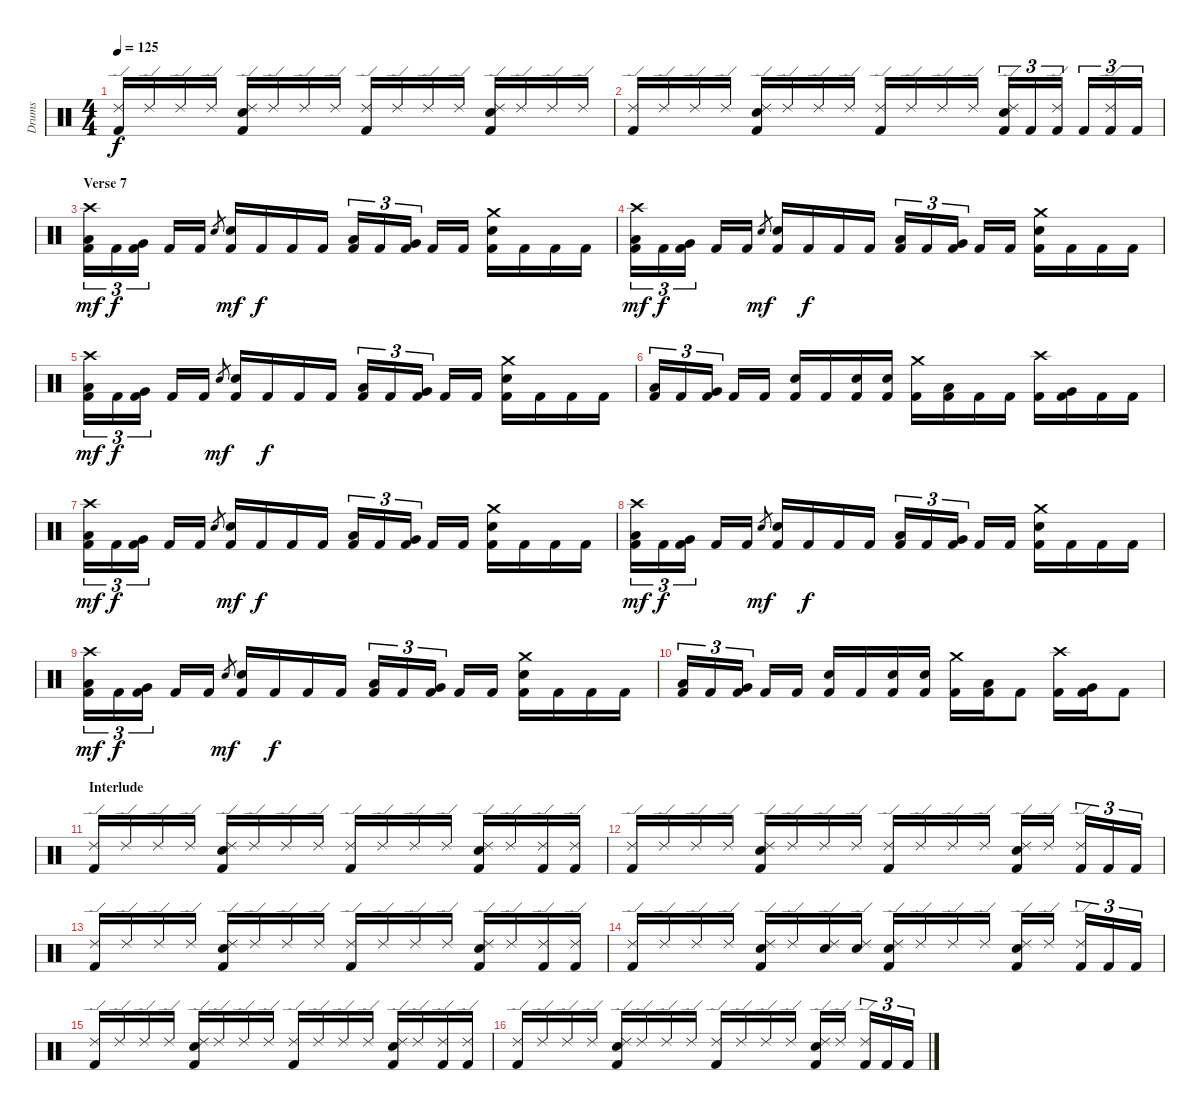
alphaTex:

\track ("Drums" "Drums") {instrument percussion}
\staff {score}
\articulation defaults
\ts (4 4)
\tempo 125
\clef neutral
\ks c
("Kick (hit) 2" "Ride (edge) 2").16{dy f} "Ride (edge) 2".16 "Ride (edge) 2".16 "Ride (edge) 2".16 ("Kick (hit) 2" "Electric Snare (hit)" "Ride (edge) 2").16 "Ride (edge) 2".16 "Ride (edge) 2".16 "Ride (edge) 2".16 ("Kick (hit) 2" "Ride (edge) 2").16 "Ride (edge) 2".16 "Ride (edge) 2".16 "Ride (edge) 2".16 ("Kick (hit) 2" "Electric Snare (hit)" "Ride (edge) 2").16 "Ride (edge) 2".16 "Ride (edge) 2".16 "Ride (edge) 2".16 |
("Kick (hit) 2" "Ride (edge) 2").16 "Ride (edge) 2".16 "Ride (edge) 2".16 "Ride (edge) 2".16 ("Kick (hit) 2" "Electric Snare (hit)" "Ride (edge) 2").16 "Ride (edge) 2".16 "Ride (edge) 2".16 "Ride (edge) 2".16 ("Kick (hit) 2" "Ride (edge) 2").16 "Ride (edge) 2".16 "Ride (edge) 2".16 "Ride (edge) 2".16 ("Kick (hit) 2" "Electric Snare (hit)" "Ride (edge) 2").16{tu (3 2)} "Kick (hit) 2".16{tu (3 2)} ("Kick (hit) 2" "Ride (edge) 2").16{tu (3 2)} "Kick (hit) 2".16{tu (3 2)} ("Kick (hit) 2" "Ride (edge) 2").16{tu (3 2)} "Kick (hit) 2".16{tu (3 2)} |
\section ("" "Verse 7")
("Kick (hit) 2" "Low Floor Tom (hit)" "Crash high (hit)").16{tu (3 2) dy mf} "Kick (hit) 2".16{tu (3 2) dy f} ("Kick (hit) 2" "Very Low Tom (hit)").16{tu (3 2)} "Kick (hit) 2".16 "Kick (hit) 2".16 "Electric Snare (hit)".8{gr} ("Kick (hit) 2" "Electric Snare (hit)").16{dy mf} "Kick (hit) 2".16{dy f} "Kick (hit) 2".16 "Kick (hit) 2".16 ("Kick (hit) 2" "Low Floor Tom (hit)").16{tu (3 2)} "Kick (hit) 2".16{tu (3 2)} ("Kick (hit) 2" "Very Low Tom (hit)").16{tu (3 2)} "Kick (hit) 2".16 "Kick (hit) 2".16 ("Kick (hit) 2" "Electric Snare (hit)" "Crash medium (hit)").16 "Kick (hit) 2".16 "Kick (hit) 2".16 "Kick (hit) 2".16 |
("Kick (hit) 2" "Low Floor Tom (hit)" "Crash high (hit)").16{tu (3 2) dy mf} "Kick (hit) 2".16{tu (3 2) dy f} ("Kick (hit) 2" "Very Low Tom (hit)").16{tu (3 2)} "Kick (hit) 2".16 "Kick (hit) 2".16 "Electric Snare (hit)".8{gr dy mf} ("Kick (hit) 2" "Electric Snare (hit)").16 "Kick (hit) 2".16{dy f} "Kick (hit) 2".16 "Kick (hit) 2".16 ("Kick (hit) 2" "Low Floor Tom (hit)").16{tu (3 2)} "Kick (hit) 2".16{tu (3 2)} ("Kick (hit) 2" "Very Low Tom (hit)").16{tu (3 2)} "Kick (hit) 2".16 "Kick (hit) 2".16 ("Kick (hit) 2" "Electric Snare (hit)" "Crash medium (hit)").16 "Kick (hit) 2".16 "Kick (hit) 2".16 "Kick (hit) 2".16 |
("Kick (hit) 2" "Low Floor Tom (hit)" "Crash high (hit)").16{tu (3 2) dy mf} "Kick (hit) 2".16{tu (3 2) dy f} ("Kick (hit) 2" "Very Low Tom (hit)").16{tu (3 2)} "Kick (hit) 2".16 "Kick (hit) 2".16 "Electric Snare (hit)".8{gr dy mf} ("Kick (hit) 2" "Electric Snare (hit)").16 "Kick (hit) 2".16{dy f} "Kick (hit) 2".16 "Kick (hit) 2".16 ("Kick (hit) 2" "Low Floor Tom (hit)").16{tu (3 2)} "Kick (hit) 2".16{tu (3 2)} ("Kick (hit) 2" "Very Low Tom (hit)").16{tu (3 2)} "Kick (hit) 2".16 "Kick (hit) 2".16 ("Kick (hit) 2" "Electric Snare (hit)" "Crash medium (hit)").16 "Kick (hit) 2".16 "Kick (hit) 2".16 "Kick (hit) 2".16 |
("Kick (hit) 2" "Low Floor Tom (hit)").16{tu (3 2)} "Kick (hit) 2".16{tu (3 2)} ("Kick (hit) 2" "Very Low Tom (hit)").16{tu (3 2)} "Kick (hit) 2".16 "Kick (hit) 2".16 ("Kick (hit) 2" "Electric Snare (hit)").16 "Kick (hit) 2".16 ("Kick (hit) 2" "Electric Snare (hit)").16 ("Kick (hit) 2" "Electric Snare (hit)").16 ("Kick (hit) 2" "Crash medium (hit)").16 ("Kick (hit) 2" "Low Floor Tom (hit)").16 "Kick (hit) 2".16 "Kick (hit) 2".16 ("Kick (hit) 2" "Crash high (hit)").16 ("Kick (hit) 2" "Very Low Tom (hit)").16 "Kick (hit) 2".16 "Kick (hit) 2".16 |
("Kick (hit) 2" "Low Floor Tom (hit)" "Crash high (hit)").16{tu (3 2) dy mf} "Kick (hit) 2".16{tu (3 2) dy f} ("Kick (hit) 2" "Very Low Tom (hit)").16{tu (3 2)} "Kick (hit) 2".16 "Kick (hit) 2".16 "Electric Snare (hit)".8{gr} ("Kick (hit) 2" "Electric Snare (hit)").16{dy mf} "Kick (hit) 2".16{dy f} "Kick (hit) 2".16 "Kick (hit) 2".16 ("Kick (hit) 2" "Low Floor Tom (hit)").16{tu (3 2)} "Kick (hit) 2".16{tu (3 2)} ("Kick (hit) 2" "Very Low Tom (hit)").16{tu (3 2)} "Kick (hit) 2".16 "Kick (hit) 2".16 ("Kick (hit) 2" "Electric Snare (hit)" "Crash medium (hit)").16 "Kick (hit) 2".16 "Kick (hit) 2".16 "Kick (hit) 2".16 |
("Kick (hit) 2" "Low Floor Tom (hit)" "Crash high (hit)").16{tu (3 2) dy mf} "Kick (hit) 2".16{tu (3 2) dy f} ("Kick (hit) 2" "Very Low Tom (hit)").16{tu (3 2)} "Kick (hit) 2".16 "Kick (hit) 2".16 "Electric Snare (hit)".8{gr dy mf} ("Kick (hit) 2" "Electric Snare (hit)").16 "Kick (hit) 2".16{dy f} "Kick (hit) 2".16 "Kick (hit) 2".16 ("Kick (hit) 2" "Low Floor Tom (hit)").16{tu (3 2)} "Kick (hit) 2".16{tu (3 2)} ("Kick (hit) 2" "Very Low Tom (hit)").16{tu (3 2)} "Kick (hit) 2".16 "Kick (hit) 2".16 ("Kick (hit) 2" "Electric Snare (hit)" "Crash medium (hit)").16 "Kick (hit) 2".16 "Kick (hit) 2".16 "Kick (hit) 2".16 |
("Kick (hit) 2" "Low Floor Tom (hit)" "Crash high (hit)").16{tu (3 2) dy mf} "Kick (hit) 2".16{tu (3 2) dy f} ("Kick (hit) 2" "Very Low Tom (hit)").16{tu (3 2)} "Kick (hit) 2".16 "Kick (hit) 2".16 "Electric Snare (hit)".8{gr dy mf} ("Kick (hit) 2" "Electric Snare (hit)").16 "Kick (hit) 2".16{dy f} "Kick (hit) 2".16 "Kick (hit) 2".16 ("Kick (hit) 2" "Low Floor Tom (hit)").16{tu (3 2)} "Kick (hit) 2".16{tu (3 2)} ("Kick (hit) 2" "Very Low Tom (hit)").16{tu (3 2)} "Kick (hit) 2".16 "Kick (hit) 2".16 ("Kick (hit) 2" "Electric Snare (hit)" "Crash medium (hit)").16 "Kick (hit) 2".16 "Kick (hit) 2".16 "Kick (hit) 2".16 |
("Kick (hit) 2" "Low Floor Tom (hit)").16{tu (3 2)} "Kick (hit) 2".16{tu (3 2)} ("Kick (hit) 2" "Very Low Tom (hit)").16{tu (3 2)} "Kick (hit) 2".16 "Kick (hit) 2".16 ("Kick (hit) 2" "Electric Snare (hit)").16 "Kick (hit) 2".16 ("Kick (hit) 2" "Electric Snare (hit)").16 ("Kick (hit) 2" "Electric Snare (hit)").16 ("Kick (hit) 2" "Crash medium (hit)").16 ("Kick (hit) 2" "Low Floor Tom (hit)").16 "Kick (hit) 2".8 ("Kick (hit) 2" "Crash high (hit)").16 ("Kick (hit) 2" "Very Low Tom (hit)").16 "Kick (hit) 2".8 |
\section ("" "Interlude")
("Kick (hit) 2" "Ride (edge) 2").16 "Ride (edge) 2".16 "Ride (edge) 2".16 "Ride (edge) 2".16 ("Kick (hit) 2" "Electric Snare (hit)" "Ride (edge) 2").16 "Ride (edge) 2".16 "Ride (edge) 2".16 "Ride (edge) 2".16 ("Kick (hit) 2" "Ride (edge) 2").16 "Ride (edge) 2".16 "Ride (edge) 2".16 "Ride (edge) 2".16 ("Kick (hit) 2" "Electric Snare (hit)" "Ride (edge) 2").16 "Ride (edge) 2".16 ("Kick (hit) 2" "Ride (edge) 2").16 ("Kick (hit) 2" "Ride (edge) 2").16 |
("Kick (hit) 2" "Ride (edge) 2").16 "Ride (edge) 2".16 "Ride (edge) 2".16 "Ride (edge) 2".16 ("Kick (hit) 2" "Electric Snare (hit)" "Ride (edge) 2").16 "Ride (edge) 2".16 "Ride (edge) 2".16 "Ride (edge) 2".16 ("Kick (hit) 2" "Ride (edge) 2").16 "Ride (edge) 2".16 "Ride (edge) 2".16 "Ride (edge) 2".16 ("Kick (hit) 2" "Electric Snare (hit)" "Ride (edge) 2").16 "Ride (edge) 2".16 ("Kick (hit) 2" "Ride (edge) 2").16{tu (3 2)} "Kick (hit) 2".16{tu (3 2)} "Kick (hit) 2".16{tu (3 2)} |
("Kick (hit) 2" "Ride (edge) 2").16 "Ride (edge) 2".16 "Ride (edge) 2".16 "Ride (edge) 2".16 ("Kick (hit) 2" "Electric Snare (hit)" "Ride (edge) 2").16 "Ride (edge) 2".16 "Ride (edge) 2".16 "Ride (edge) 2".16 ("Kick (hit) 2" "Ride (edge) 2").16 "Ride (edge) 2".16 "Ride (edge) 2".16 "Ride (edge) 2".16 ("Kick (hit) 2" "Electric Snare (hit)" "Ride (edge) 2").16 "Ride (edge) 2".16 ("Kick (hit) 2" "Ride (edge) 2").16 ("Kick (hit) 2" "Ride (edge) 2").16 |
("Kick (hit) 2" "Ride (edge) 2").16 "Ride (edge) 2".16 "Ride (edge) 2".16 "Ride (edge) 2".16 ("Kick (hit) 2" "Electric Snare (hit)" "Ride (edge) 2").16 "Ride (edge) 2".16 ("Electric Snare (hit)" "Ride (edge) 2").16 ("Electric Snare (hit)" "Ride (edge) 2").16 ("Kick (hit) 2" "Electric Snare (hit)" "Ride (edge) 2").16 "Ride (edge) 2".16 "Ride (edge) 2".16 "Ride (edge) 2".16 ("Kick (hit) 2" "Electric Snare (hit)" "Ride (edge) 2").16 "Ride (edge) 2".16 ("Kick (hit) 2" "Ride (edge) 2").16{tu (3 2)} "Kick (hit) 2".16{tu (3 2)} "Kick (hit) 2".16{tu (3 2)} |
("Kick (hit) 2" "Ride (edge) 2").16 "Ride (edge) 2".16 "Ride (edge) 2".16 "Ride (edge) 2".16 ("Kick (hit) 2" "Electric Snare (hit)" "Ride (edge) 2").16 "Ride (edge) 2".16 "Ride (edge) 2".16 "Ride (edge) 2".16 ("Kick (hit) 2" "Ride (edge) 2").16 "Ride (edge) 2".16 "Ride (edge) 2".16 "Ride (edge) 2".16 ("Kick (hit) 2" "Electric Snare (hit)" "Ride (edge) 2").16 "Ride (edge) 2".16 ("Kick (hit) 2" "Ride (edge) 2").16 ("Kick (hit) 2" "Ride (edge) 2").16 |
("Kick (hit) 2" "Ride (edge) 2").16 "Ride (edge) 2".16 "Ride (edge) 2".16 "Ride (edge) 2".16 ("Kick (hit) 2" "Electric Snare (hit)" "Ride (edge) 2").16 "Ride (edge) 2".16 "Ride (edge) 2".16 "Ride (edge) 2".16 ("Kick (hit) 2" "Ride (edge) 2").16 "Ride (edge) 2".16 "Ride (edge) 2".16 "Ride (edge) 2".16 ("Kick (hit) 2" "Electric Snare (hit)" "Ride (edge) 2").16 "Ride (edge) 2".16 ("Kick (hit) 2" "Ride (edge) 2").16{tu (3 2)} "Kick (hit) 2".16{tu (3 2)} "Kick (hit) 2".16{tu (3 2)}
